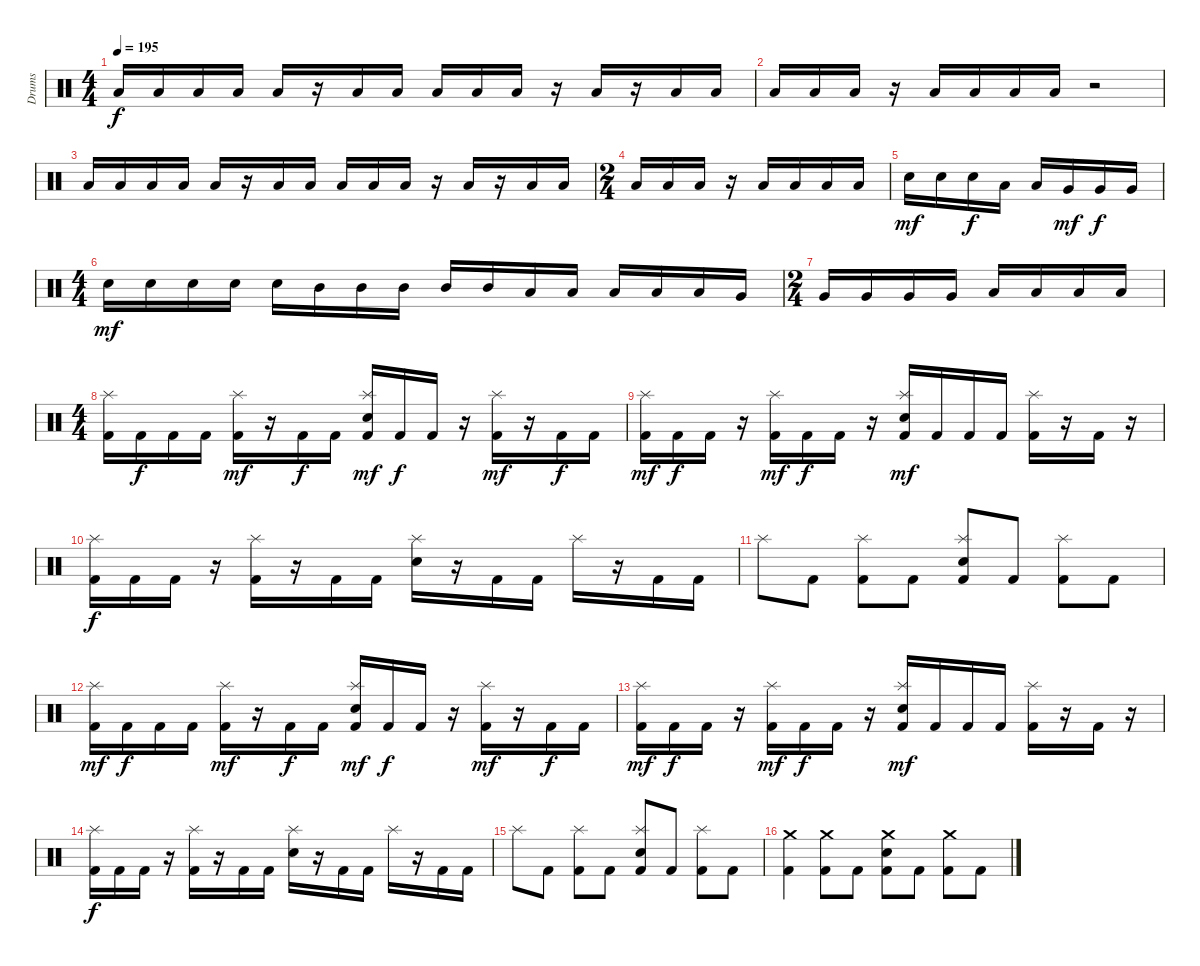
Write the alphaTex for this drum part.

\track ("Drums" "Drums") {instrument percussion}
\staff {score}
\articulation defaults
\ts (4 4)
\tempo 195
\clef neutral
\ks c "Low Floor Tom (hit)".16{dy f} "Low Floor Tom (hit)".16 "Low Floor Tom (hit)".16 "Low Floor Tom (hit)".16 "Low Floor Tom (hit)".16
r.16 "Low Floor Tom (hit)".16 "Low Floor Tom (hit)".16 "Low Floor Tom (hit)".16 "Low Floor Tom (hit)".16 "Low Floor Tom (hit)".16 r.16 "Low Floor Tom (hit)".16 r.16 "Low Floor Tom (hit)".16 "Low Floor Tom (hit)".16 |
"Low Floor Tom (hit)".16 "Low Floor Tom (hit)".16 "Low Floor Tom (hit)".16 r.16 "Low Floor Tom (hit)".16 "Low Floor Tom (hit)".16 "Low Floor Tom (hit)".16 "Low Floor Tom (hit)".16 r.2 |
"Low Floor Tom (hit)".16 "Low Floor Tom (hit)".16 "Low Floor Tom (hit)".16 "Low Floor Tom (hit)".16 "Low Floor Tom (hit)".16 r.16 "Low Floor Tom (hit)".16 "Low Floor Tom (hit)".16 "Low Floor Tom (hit)".16 "Low Floor Tom (hit)".16 "Low Floor Tom (hit)".16 r.16 "Low Floor Tom (hit)".16 r.16 "Low Floor Tom (hit)".16 "Low Floor Tom (hit)".16 |
\ts (2 4)
"Low Floor Tom (hit)".16 "Low Floor Tom (hit)".16 "Low Floor Tom (hit)".16 r.16 "Low Floor Tom (hit)".16 "Low Floor Tom (hit)".16 "Low Floor Tom (hit)".16 "Low Floor Tom (hit)".16 |
"Electric Snare (hit)".16{dy mf} "Electric Snare (hit)".16 "Electric Snare (hit)".16{dy f} "Low Tom (hit)".16 "Low Tom (hit)".16 "Very Low Tom (hit)".16{dy mf} "Very Low Tom (hit)".16{dy f} "Very Low Tom (hit)".16 |
\ts (4 4)
"Electric Snare (hit)".16{dy mf} "Electric Snare (hit)".16 "Electric Snare (hit)".16 "Electric Snare (hit)".16 "Electric Snare (hit)".16 "Mid Tom (hit)".16 "Mid Tom (hit)".16 "Mid Tom (hit)".16 "Mid Tom (hit)".16 "Mid Tom (hit)".16 "Low Tom (hit)".16 "Low Tom (hit)".16 "Low Tom (hit)".16 "Low Tom (hit)".16 "Low Tom (hit)".16 "Very Low Tom (hit)".16 |
\ts (2 4)
"Very Low Tom (hit)".16 "Very Low Tom (hit)".16 "Very Low Tom (hit)".16 "Very Low Tom (hit)".16 "Low Floor Tom (hit)".16 "Low Floor Tom (hit)".16 "Low Floor Tom (hit)".16 "Low Floor Tom (hit)".16 |
\ts (4 4)
("Splash (hit)" "Kick (hit) 2").16 "Kick (hit) 2".16{dy f} "Kick (hit) 2".16 "Kick (hit) 2".16 ("Splash (hit)" "Kick (hit) 2").16{dy mf} r.16 "Kick (hit) 2".16{dy f} "Kick (hit) 2".16 ("Splash (hit)" "Electric Snare (hit)" "Kick (hit) 2").16{dy mf} "Kick (hit) 2".16{dy f} "Kick (hit) 2".16 r.16 ("Splash (hit)" "Kick (hit) 2").16{dy mf} r.16 "Kick (hit) 2".16{dy f} "Kick (hit) 2".16 |
("Splash (hit)" "Kick (hit) 2").16{dy mf} "Kick (hit) 2".16{dy f} "Kick (hit) 2".16 r.16 ("Splash (hit)" "Kick (hit) 2").16{dy mf} "Kick (hit) 2".16{dy f} "Kick (hit) 2".16 r.16 ("Splash (hit)" "Electric Snare (hit)" "Kick (hit) 2").16{dy mf} "Kick (hit) 2".16 "Kick (hit) 2".16 "Kick (hit) 2".16 ("Splash (hit)" "Kick (hit) 2").16 r.16 "Kick (hit) 2".16 r.16 |
("Splash (hit)" "Kick (hit) 2").16{dy f} "Kick (hit) 2".16 "Kick (hit) 2".16 r.16 ("Splash (hit)" "Kick (hit) 2").16 r.16 "Kick (hit) 2".16 "Kick (hit) 2".16 ("Splash (hit)" "Electric Snare (hit)").16 r.16 "Kick (hit) 2".16 "Kick (hit) 2".16 "Splash (hit)".16 r.16 "Kick (hit) 2".16 "Kick (hit) 2".16 |
"Splash (hit)".8 "Kick (hit) 2".8 ("Splash (hit)" "Kick (hit) 2").8 "Kick (hit) 2".8 ("Splash (hit)" "Electric Snare (hit)" "Kick (hit) 2").8 "Kick (hit) 2".8 ("Splash (hit)" "Kick (hit) 2").8 "Kick (hit) 2".8 |
("Splash (hit)" "Kick (hit) 2").16{dy mf} "Kick (hit) 2".16{dy f} "Kick (hit) 2".16 "Kick (hit) 2".16 ("Splash (hit)" "Kick (hit) 2").16{dy mf} r.16 "Kick (hit) 2".16{dy f} "Kick (hit) 2".16 ("Splash (hit)" "Electric Snare (hit)" "Kick (hit) 2").16{dy mf} "Kick (hit) 2".16{dy f} "Kick (hit) 2".16 r.16 ("Splash (hit)" "Kick (hit) 2").16{dy mf} r.16 "Kick (hit) 2".16{dy f} "Kick (hit) 2".16 |
("Splash (hit)" "Kick (hit) 2").16{dy mf} "Kick (hit) 2".16{dy f} "Kick (hit) 2".16 r.16 ("Splash (hit)" "Kick (hit) 2").16{dy mf} "Kick (hit) 2".16{dy f} "Kick (hit) 2".16 r.16 ("Splash (hit)" "Electric Snare (hit)" "Kick (hit) 2").16{dy mf} "Kick (hit) 2".16 "Kick (hit) 2".16 "Kick (hit) 2".16 ("Splash (hit)" "Kick (hit) 2").16 r.16 "Kick (hit) 2".16 r.16 |
("Splash (hit)" "Kick (hit) 2").16{dy f} "Kick (hit) 2".16 "Kick (hit) 2".16 r.16 ("Splash (hit)" "Kick (hit) 2").16 r.16 "Kick (hit) 2".16 "Kick (hit) 2".16 ("Splash (hit)" "Electric Snare (hit)").16 r.16 "Kick (hit) 2".16 "Kick (hit) 2".16 "Splash (hit)".16 r.16 "Kick (hit) 2".16 "Kick (hit) 2".16 |
"Splash (hit)".8 "Kick (hit) 2".8 ("Splash (hit)" "Kick (hit) 2").8 "Kick (hit) 2".8 ("Splash (hit)" "Electric Snare (hit)" "Kick (hit) 2").8 "Kick (hit) 2".8 ("Splash (hit)" "Kick (hit) 2").8 "Kick (hit) 2".8 |
("Crash medium (hit)" "Kick (hit) 2").4 ("Crash medium (hit)" "Kick (hit) 2").8 "Kick (hit) 2".8 ("Crash medium (hit)" "Electric Snare (hit)" "Kick (hit) 2").8 "Kick (hit) 2".8 ("Crash medium (hit)" "Kick (hit) 2").8 "Kick (hit) 2".8
